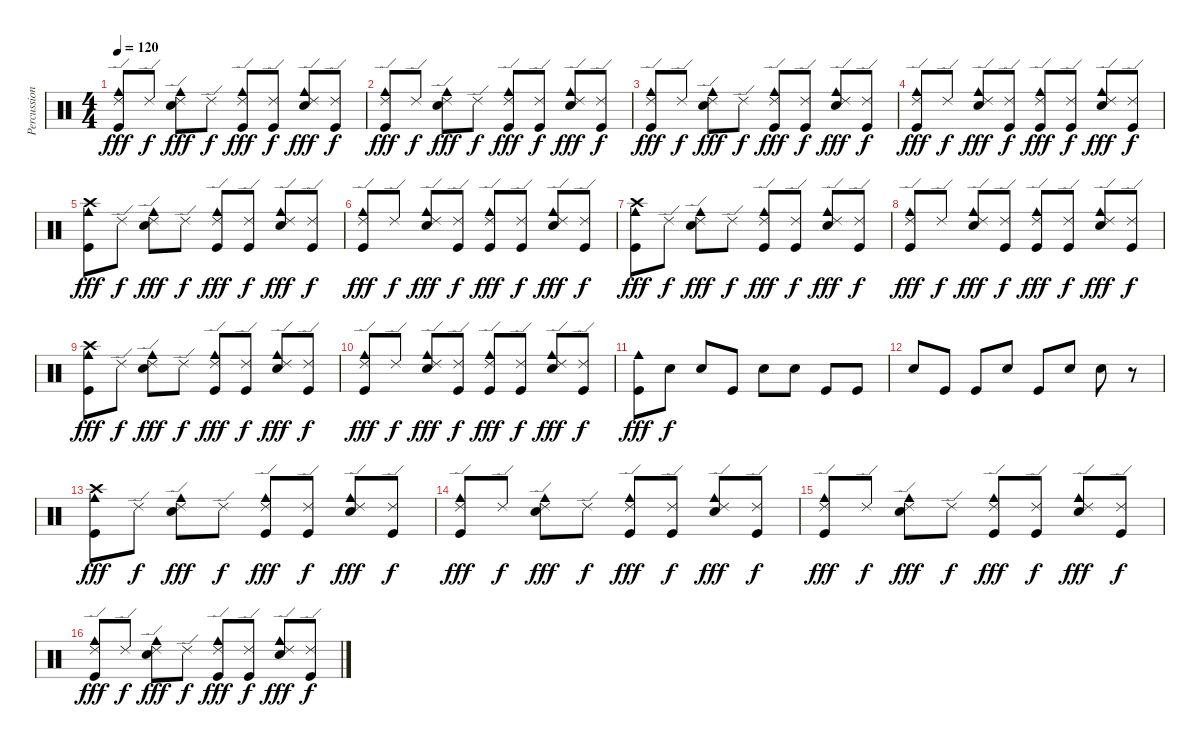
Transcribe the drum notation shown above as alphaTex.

\track ("Percussion" "Percussion") {instrument percussion}
\staff {score}
\articulation defaults
\ts (4 4)
\tempo 120
\clef neutral
\ks c
("Ride (edge) 2" "Cowbell medium (hit)" "Kick (hit)").8{dy fff} "Ride (edge) 2".8{dy f} ("Ride (edge) 2" "Cowbell medium (hit)" "Snare (hit) 2").8{dy fff} "Ride (edge) 2".8{dy f} ("Ride (edge) 2" "Cowbell medium (hit)" "Kick (hit)").8{dy fff} ("Ride (edge) 2" "Kick (hit)").8{dy f} ("Ride (edge) 2" "Cowbell medium (hit)" "Snare (hit) 2").8{dy fff} ("Ride (edge) 2" "Kick (hit)").8{dy f} |
("Ride (edge) 2" "Cowbell medium (hit)" "Kick (hit)").8{dy fff} "Ride (edge) 2".8{dy f} ("Ride (edge) 2" "Cowbell medium (hit)" "Snare (hit) 2").8{dy fff} "Ride (edge) 2".8{dy f} ("Ride (edge) 2" "Cowbell medium (hit)" "Kick (hit)").8{dy fff} ("Ride (edge) 2" "Kick (hit)").8{dy f} ("Ride (edge) 2" "Cowbell medium (hit)" "Snare (hit) 2").8{dy fff} ("Ride (edge) 2" "Kick (hit)").8{dy f} |
("Ride (edge) 2" "Cowbell medium (hit)" "Kick (hit)").8{dy fff} "Ride (edge) 2".8{dy f} ("Ride (edge) 2" "Cowbell medium (hit)" "Snare (hit) 2").8{dy fff} "Ride (edge) 2".8{dy f} ("Ride (edge) 2" "Cowbell medium (hit)" "Kick (hit)").8{dy fff} ("Ride (edge) 2" "Kick (hit)").8{dy f} ("Ride (edge) 2" "Cowbell medium (hit)" "Snare (hit) 2").8{dy fff} ("Ride (edge) 2" "Kick (hit)").8{dy f} |
("Ride (edge) 2" "Cowbell medium (hit)" "Kick (hit)").8{dy fff} "Ride (edge) 2".8{dy f} ("Ride (edge) 2" "Cowbell medium (hit)" "Snare (hit) 2").8{dy fff} ("Ride (edge) 2" "Kick (hit)").8{dy f} ("Ride (edge) 2" "Cowbell medium (hit)" "Kick (hit)").8{dy fff} ("Ride (edge) 2" "Kick (hit)").8{dy f} ("Ride (edge) 2" "Cowbell medium (hit)" "Snare (hit) 2").8{dy fff} ("Ride (edge) 2" "Kick (hit)").8{dy f} |
("Crash high (hit)" "Cowbell medium (hit)" "Kick (hit)").8{dy fff} "Ride (edge) 2".8{dy f} ("Ride (edge) 2" "Cowbell medium (hit)" "Snare (hit) 2").8{dy fff} "Ride (edge) 2".8{dy f} ("Ride (edge) 2" "Cowbell medium (hit)" "Kick (hit)").8{dy fff} ("Ride (edge) 2" "Kick (hit)").8{dy f} ("Ride (edge) 2" "Cowbell medium (hit)" "Snare (hit) 2").8{dy fff} ("Ride (edge) 2" "Kick (hit)").8{dy f} |
("Ride (edge) 2" "Cowbell medium (hit)" "Kick (hit)").8{dy fff} "Ride (edge) 2".8{dy f} ("Ride (edge) 2" "Cowbell medium (hit)" "Snare (hit) 2").8{dy fff} ("Ride (edge) 2" "Kick (hit)").8{dy f} ("Ride (edge) 2" "Cowbell medium (hit)" "Kick (hit)").8{dy fff} ("Ride (edge) 2" "Kick (hit)").8{dy f} ("Ride (edge) 2" "Cowbell medium (hit)" "Snare (hit) 2").8{dy fff} ("Ride (edge) 2" "Kick (hit)").8{dy f} |
("Crash high (hit)" "Cowbell medium (hit)" "Kick (hit)").8{dy fff} "Ride (edge) 2".8{dy f} ("Ride (edge) 2" "Cowbell medium (hit)" "Snare (hit) 2").8{dy fff} "Ride (edge) 2".8{dy f} ("Ride (edge) 2" "Cowbell medium (hit)" "Kick (hit)").8{dy fff} ("Ride (edge) 2" "Kick (hit)").8{dy f} ("Ride (edge) 2" "Cowbell medium (hit)" "Snare (hit) 2").8{dy fff} ("Ride (edge) 2" "Kick (hit)").8{dy f} |
("Ride (edge) 2" "Cowbell medium (hit)" "Kick (hit)").8{dy fff} "Ride (edge) 2".8{dy f} ("Ride (edge) 2" "Cowbell medium (hit)" "Snare (hit) 2").8{dy fff} ("Ride (edge) 2" "Kick (hit)").8{dy f} ("Ride (edge) 2" "Cowbell medium (hit)" "Kick (hit)").8{dy fff} ("Ride (edge) 2" "Kick (hit)").8{dy f} ("Ride (edge) 2" "Cowbell medium (hit)" "Snare (hit) 2").8{dy fff} ("Ride (edge) 2" "Kick (hit)").8{dy f} |
("Crash high (hit)" "Cowbell medium (hit)" "Kick (hit)").8{dy fff} "Ride (edge) 2".8{dy f} ("Ride (edge) 2" "Cowbell medium (hit)" "Snare (hit) 2").8{dy fff} "Ride (edge) 2".8{dy f} ("Ride (edge) 2" "Cowbell medium (hit)" "Kick (hit)").8{dy fff} ("Ride (edge) 2" "Kick (hit)").8{dy f} ("Ride (edge) 2" "Cowbell medium (hit)" "Snare (hit) 2").8{dy fff} ("Ride (edge) 2" "Kick (hit)").8{dy f} |
("Ride (edge) 2" "Cowbell medium (hit)" "Kick (hit)").8{dy fff} "Ride (edge) 2".8{dy f} ("Ride (edge) 2" "Cowbell medium (hit)" "Snare (hit) 2").8{dy fff} ("Ride (edge) 2" "Kick (hit)").8{dy f} ("Ride (edge) 2" "Cowbell medium (hit)" "Kick (hit)").8{dy fff} ("Ride (edge) 2" "Kick (hit)").8{dy f} ("Ride (edge) 2" "Cowbell medium (hit)" "Snare (hit) 2").8{dy fff} ("Ride (edge) 2" "Kick (hit)").8{dy f} |
("Cowbell medium (hit)" "Kick (hit)").8{dy fff} "Snare (hit) 2".8{dy f} "Snare (hit) 2".8 "Kick (hit)".8 "Snare (hit) 2".8 "Snare (hit) 2".8 "Kick (hit)".8 "Kick (hit)".8 |
"Snare (hit) 2".8 "Kick (hit)".8 "Kick (hit)".8 "Snare (hit) 2".8 "Kick (hit)".8 "Snare (hit) 2".8 "Snare (hit) 2".8 r.8 |
("Crash high (hit)" "Cowbell medium (hit)" "Kick (hit)").8{dy fff} "Ride (edge) 2".8{dy f} ("Ride (edge) 2" "Cowbell medium (hit)" "Snare (hit) 2").8{dy fff} "Ride (edge) 2".8{dy f} ("Ride (edge) 2" "Cowbell medium (hit)" "Kick (hit)").8{dy fff} ("Ride (edge) 2" "Kick (hit)").8{dy f} ("Ride (edge) 2" "Cowbell medium (hit)" "Snare (hit) 2").8{dy fff} ("Ride (edge) 2" "Kick (hit)").8{dy f} |
("Ride (edge) 2" "Cowbell medium (hit)" "Kick (hit)").8{dy fff} "Ride (edge) 2".8{dy f} ("Ride (edge) 2" "Cowbell medium (hit)" "Snare (hit) 2").8{dy fff} "Ride (edge) 2".8{dy f} ("Ride (edge) 2" "Cowbell medium (hit)" "Kick (hit)").8{dy fff} ("Ride (edge) 2" "Kick (hit)").8{dy f} ("Ride (edge) 2" "Cowbell medium (hit)" "Snare (hit) 2").8{dy fff} ("Ride (edge) 2" "Kick (hit)").8{dy f} |
("Ride (edge) 2" "Cowbell medium (hit)" "Kick (hit)").8{dy fff} "Ride (edge) 2".8{dy f} ("Ride (edge) 2" "Cowbell medium (hit)" "Snare (hit) 2").8{dy fff} "Ride (edge) 2".8{dy f} ("Ride (edge) 2" "Cowbell medium (hit)" "Kick (hit)").8{dy fff} ("Ride (edge) 2" "Kick (hit)").8{dy f} ("Ride (edge) 2" "Cowbell medium (hit)" "Snare (hit) 2").8{dy fff} ("Ride (edge) 2" "Kick (hit)").8{dy f} |
("Ride (edge) 2" "Cowbell medium (hit)" "Kick (hit)").8{dy fff} "Ride (edge) 2".8{dy f} ("Ride (edge) 2" "Cowbell medium (hit)" "Snare (hit) 2").8{dy fff} "Ride (edge) 2".8{dy f} ("Ride (edge) 2" "Cowbell medium (hit)" "Kick (hit)").8{dy fff} ("Ride (edge) 2" "Kick (hit)").8{dy f} ("Ride (edge) 2" "Cowbell medium (hit)" "Snare (hit) 2").8{dy fff} ("Ride (edge) 2" "Kick (hit)").8{dy f}
